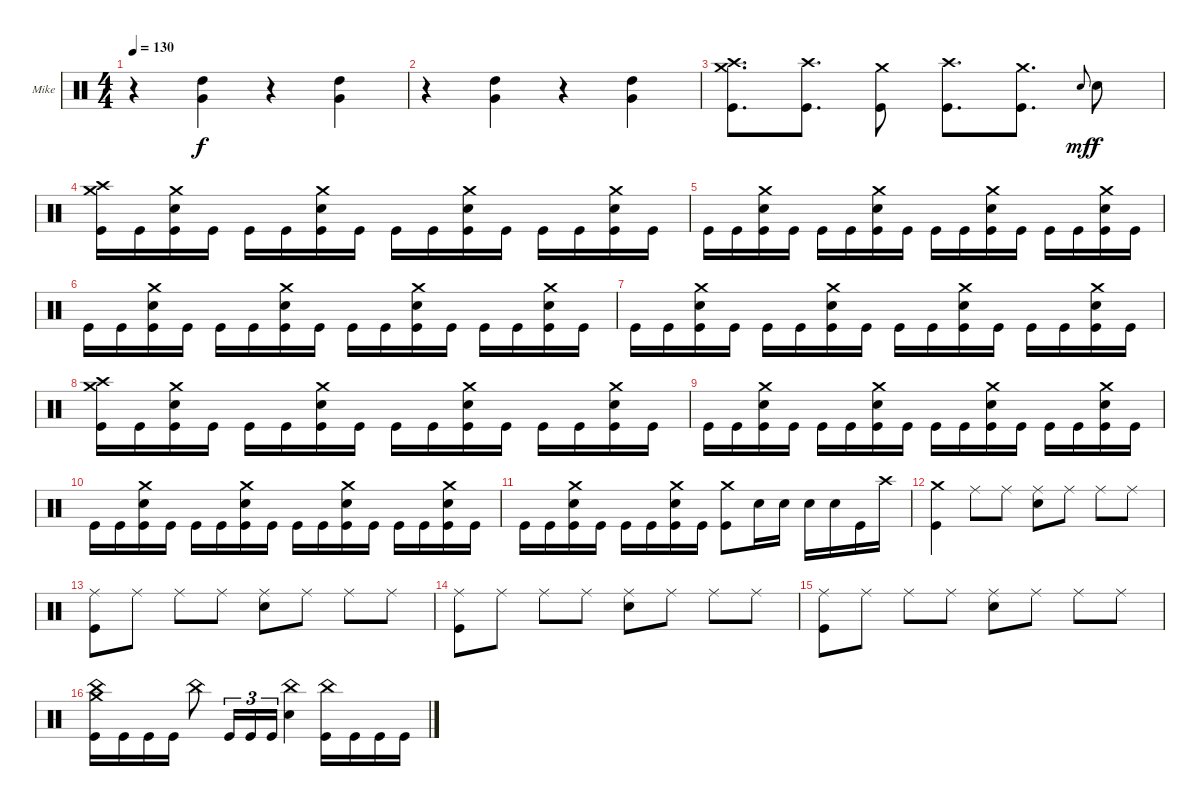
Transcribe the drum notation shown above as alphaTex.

\defaultSystemsLayout 4
\bracketExtendMode groupsimilarinstruments
\firstSystemTrackNameOrientation horizontal
\otherSystemsTrackNameOrientation horizontal
\track ("Mike Portnoy" "Mike") {instrument percussion}
\staff {score}
\articulation defaults
\ts (4 4)
\tempo 130
\clef neutral
\ks c
r.4{dy f} ("High Tom (hit)" "Very Low Tom (hit)").4 r.4 ("High Tom (hit)" "Very Low Tom (hit)").4 |
r.4 ("High Tom (hit)" "Very Low Tom (hit)").4 r.4 ("High Tom (hit)" "Very Low Tom (hit)").4 |
("Crash medium (hit)" "Crash high (hit)" "Kick (hit)").8{d} ("Crash high (hit)" "Kick (hit)").8{d} ("Crash medium (hit)" "Kick (hit)").8 ("Crash high (hit)" "Kick (hit)").8{d} ("Crash medium (hit)" "Kick (hit)").8{d} "Snare (hit) 2".8{gr onbeat dy mf} "Snare (hit) 2".8{dy f} |
("Crash medium (hit)" "Crash high (hit)" "Kick (hit)").16 "Kick (hit)".16 ("Crash medium (hit)" "Snare (hit) 2" "Kick (hit)").16 "Kick (hit)".16 "Kick (hit)".16 "Kick (hit)".16 ("Crash medium (hit)" "Snare (hit) 2" "Kick (hit)").16 "Kick (hit)".16 "Kick (hit)".16 "Kick (hit)".16 ("Crash medium (hit)" "Snare (hit) 2" "Kick (hit)").16 "Kick (hit)".16 "Kick (hit)".16 "Kick (hit)".16 ("Crash medium (hit)" "Snare (hit) 2" "Kick (hit)").16 "Kick (hit)".16 |
"Kick (hit)".16 "Kick (hit)".16 ("Crash medium (hit)" "Snare (hit) 2" "Kick (hit)").16 "Kick (hit)".16 "Kick (hit)".16 "Kick (hit)".16 ("Crash medium (hit)" "Snare (hit) 2" "Kick (hit)").16 "Kick (hit)".16 "Kick (hit)".16 "Kick (hit)".16 ("Crash medium (hit)" "Snare (hit) 2" "Kick (hit)").16 "Kick (hit)".16 "Kick (hit)".16 "Kick (hit)".16 ("Crash medium (hit)" "Snare (hit) 2" "Kick (hit)").16 "Kick (hit)".16 |
"Kick (hit)".16 "Kick (hit)".16 ("Crash medium (hit)" "Snare (hit) 2" "Kick (hit)").16 "Kick (hit)".16 "Kick (hit)".16 "Kick (hit)".16 ("Crash medium (hit)" "Snare (hit) 2" "Kick (hit)").16 "Kick (hit)".16 "Kick (hit)".16 "Kick (hit)".16 ("Crash medium (hit)" "Snare (hit) 2" "Kick (hit)").16 "Kick (hit)".16 "Kick (hit)".16 "Kick (hit)".16 ("Crash medium (hit)" "Snare (hit) 2" "Kick (hit)").16 "Kick (hit)".16 |
"Kick (hit)".16 "Kick (hit)".16 ("Crash medium (hit)" "Snare (hit) 2" "Kick (hit)").16 "Kick (hit)".16 "Kick (hit)".16 "Kick (hit)".16 ("Crash medium (hit)" "Snare (hit) 2" "Kick (hit)").16 "Kick (hit)".16 "Kick (hit)".16 "Kick (hit)".16 ("Crash medium (hit)" "Snare (hit) 2" "Kick (hit)").16 "Kick (hit)".16 "Kick (hit)".16 "Kick (hit)".16 ("Crash medium (hit)" "Snare (hit) 2" "Kick (hit)").16 "Kick (hit)".16 |
("Crash medium (hit)" "Crash high (hit)" "Kick (hit)").16 "Kick (hit)".16 ("Crash medium (hit)" "Snare (hit) 2" "Kick (hit)").16 "Kick (hit)".16 "Kick (hit)".16 "Kick (hit)".16 ("Crash medium (hit)" "Snare (hit) 2" "Kick (hit)").16 "Kick (hit)".16 "Kick (hit)".16 "Kick (hit)".16 ("Crash medium (hit)" "Snare (hit) 2" "Kick (hit)").16 "Kick (hit)".16 "Kick (hit)".16 "Kick (hit)".16 ("Crash medium (hit)" "Snare (hit) 2" "Kick (hit)").16 "Kick (hit)".16 |
"Kick (hit)".16 "Kick (hit)".16 ("Crash medium (hit)" "Snare (hit) 2" "Kick (hit)").16 "Kick (hit)".16 "Kick (hit)".16 "Kick (hit)".16 ("Crash medium (hit)" "Snare (hit) 2" "Kick (hit)").16 "Kick (hit)".16 "Kick (hit)".16 "Kick (hit)".16 ("Crash medium (hit)" "Snare (hit) 2" "Kick (hit)").16 "Kick (hit)".16 "Kick (hit)".16 "Kick (hit)".16 ("Crash medium (hit)" "Snare (hit) 2" "Kick (hit)").16 "Kick (hit)".16 |
"Kick (hit)".16 "Kick (hit)".16 ("Crash medium (hit)" "Snare (hit) 2" "Kick (hit)").16 "Kick (hit)".16 "Kick (hit)".16 "Kick (hit)".16 ("Crash medium (hit)" "Snare (hit) 2" "Kick (hit)").16 "Kick (hit)".16 "Kick (hit)".16 "Kick (hit)".16 ("Crash medium (hit)" "Snare (hit) 2" "Kick (hit)").16 "Kick (hit)".16 "Kick (hit)".16 "Kick (hit)".16 ("Crash medium (hit)" "Snare (hit) 2" "Kick (hit)").16 "Kick (hit)".16 |
"Kick (hit)".16 "Kick (hit)".16 ("Crash medium (hit)" "Snare (hit) 2" "Kick (hit)").16 "Kick (hit)".16 "Kick (hit)".16 "Kick (hit)".16 ("Crash medium (hit)" "Snare (hit) 2" "Kick (hit)").16 "Kick (hit)".16 ("Crash medium (hit)" "Kick (hit)").8 "Snare (hit) 2".16 "Snare (hit) 2".16 "Snare (hit) 2".16 "Snare (hit) 2".16 "Kick (hit)".16 "Crash high (hit)".16 |
("Crash medium (hit)" "Kick (hit)").4 "Ride (middle)".8 "Ride (middle)".8 ("Ride (middle)" "Snare (hit) 2").8 "Ride (middle)".8 "Ride (middle)".8 "Ride (middle)".8 |
("Ride (middle)" "Kick (hit)").8 "Ride (middle)".8 "Ride (middle)".8 "Ride (middle)".8 ("Ride (middle)" "Snare (hit) 2").8 "Ride (middle)".8 "Ride (middle)".8 "Ride (middle)".8 |
("Ride (middle)" "Kick (hit)").8 "Ride (middle)".8 "Ride (middle)".8 "Ride (middle)".8 ("Ride (middle)" "Snare (hit) 2").8 "Ride (middle)".8 "Ride (middle)".8 "Ride (middle)".8 |
("Ride (middle)" "Kick (hit)").8 "Ride (middle)".8 "Ride (middle)".8 "Ride (middle)".8 ("Ride (middle)" "Snare (hit) 2").8 "Ride (middle)".8 "Ride (middle)".8 "Ride (middle)".8 |
("Crash medium (hit)" "China (hit)" "Kick (hit)").16 "Kick (hit)".16 "Kick (hit)".16 "Kick (hit)".16 "China (hit)".8 "Kick (hit)".16{tu (3 2)} "Kick (hit)".16{tu (3 2)} "Kick (hit)".16{tu (3 2)} ("China (hit)" "Snare (hit) 2").4 ("China (hit)" "Kick (hit)").16 "Kick (hit)".16 "Kick (hit)".16 "Kick (hit)".16
